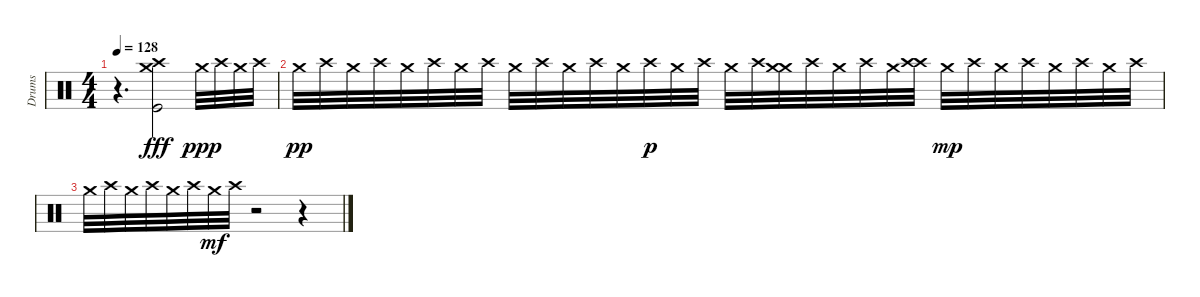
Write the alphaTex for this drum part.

\track ("Drums" "Drums") {instrument percussion}
\staff {score}
\articulation defaults
\ts (4 4)
\tempo 128
\clef neutral
\ks c
r.4{d dy ff} ("Kick (hit)" "Crash high (hit)" "Crash medium (hit)").2{dy fff} "Crash medium (hit)".32{dy ppp} "Crash high (hit)".32 "Crash medium (hit)".32 "Crash high (hit)".32 |
"Crash medium (hit)".32{dy pp} "Crash high (hit)".32 "Crash medium (hit)".32 "Crash high (hit)".32 "Crash medium (hit)".32 "Crash high (hit)".32 "Crash medium (hit)".32 "Crash high (hit)".32 "Crash medium (hit)".32 "Crash high (hit)".32 "Crash medium (hit)".32 "Crash high (hit)".32 "Crash medium (hit)".32 "Crash high (hit)".32{dy p} "Crash medium (hit)".32 "Crash high (hit)".32 "Crash medium (hit)".32 "Crash high (hit)".32 ("Crash medium (hit)" "Crash medium (hit)").32 "Crash high (hit)".32 "Crash medium (hit)".32 "Crash high (hit)".32 "Crash medium (hit)".32 ("Crash high (hit)" "Crash high (hit)").32 "Crash medium (hit)".32{dy mp} "Crash high (hit)".32 "Crash medium (hit)".32 "Crash high (hit)".32 "Crash medium (hit)".32 "Crash high (hit)".32 "Crash medium (hit)".32 "Crash high (hit)".32 |
"Crash medium (hit)".32 "Crash high (hit)".32 "Crash medium (hit)".32 "Crash high (hit)".32 "Crash medium (hit)".32 "Crash high (hit)".32 "Crash medium (hit)".32{dy mf} "Crash high (hit)".32 r.2 r.4
